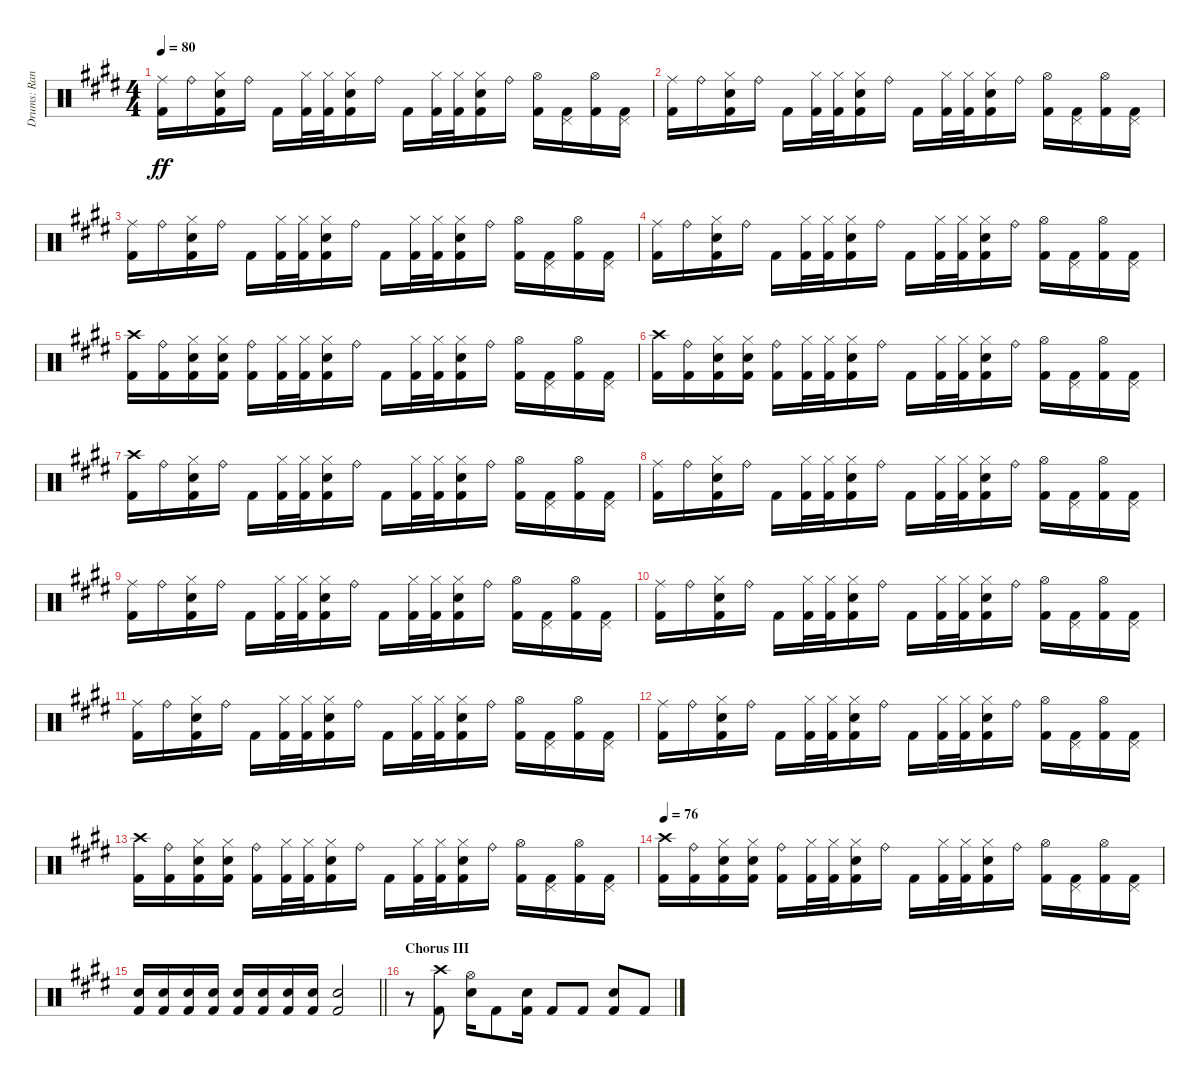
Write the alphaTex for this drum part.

\track ("Drums: Randy" "Drums: Ran") {instrument percussion}
\staff {score}
\articulation defaults
\ts (4 4)
\tempo 80
\clef neutral
\ks e
("Ride (middle)" "Kick (hit) 2").16{dy ff} "Ride (bell)".16 ("Hi-Hat (closed)" "Snare (hit) 2" "Kick (hit) 2").16 "Ride (bell)".16 "Kick (hit) 2".16 ("Hi-Hat (closed)" "Kick (hit) 2").32 ("Hi-Hat (closed)" "Kick (hit) 2").32 ("Hi-Hat (closed)" "Snare (hit) 2" "Kick (hit) 2").16 "Ride (bell)".16 "Kick (hit) 2".16 ("Hi-Hat (closed)" "Kick (hit) 2").32 ("Hi-Hat (closed)" "Kick (hit) 2").32 ("Hi-Hat (closed)" "Snare (hit) 2" "Kick (hit) 2").16 "Ride (bell)".16 ("Hi-Hat (open)" "Kick (hit) 2").16 ("Pedal Hi-Hat (hit)" "Kick (hit) 2").16 ("Hi-Hat (open)" "Kick (hit) 2").16 ("Pedal Hi-Hat (hit)" "Kick (hit) 2").16 |
("Ride (middle)" "Kick (hit) 2").16 "Ride (bell)".16 ("Hi-Hat (closed)" "Snare (hit) 2" "Kick (hit) 2").16 "Ride (bell)".16 "Kick (hit) 2".16 ("Hi-Hat (closed)" "Kick (hit) 2").32 ("Hi-Hat (closed)" "Kick (hit) 2").32 ("Hi-Hat (closed)" "Snare (hit) 2" "Kick (hit) 2").16 "Ride (bell)".16 "Kick (hit) 2".16 ("Hi-Hat (closed)" "Kick (hit) 2").32 ("Hi-Hat (closed)" "Kick (hit) 2").32 ("Hi-Hat (closed)" "Snare (hit) 2" "Kick (hit) 2").16 "Ride (bell)".16 ("Hi-Hat (open)" "Kick (hit) 2").16 ("Pedal Hi-Hat (hit)" "Kick (hit) 2").16 ("Hi-Hat (open)" "Kick (hit) 2").16 ("Pedal Hi-Hat (hit)" "Kick (hit) 2").16 |
("Ride (middle)" "Kick (hit) 2").16 "Ride (bell)".16 ("Hi-Hat (closed)" "Snare (hit) 2" "Kick (hit) 2").16 "Ride (bell)".16 "Kick (hit) 2".16 ("Hi-Hat (closed)" "Kick (hit) 2").32 ("Hi-Hat (closed)" "Kick (hit) 2").32 ("Hi-Hat (closed)" "Snare (hit) 2" "Kick (hit) 2").16 "Ride (bell)".16 "Kick (hit) 2".16 ("Hi-Hat (closed)" "Kick (hit) 2").32 ("Hi-Hat (closed)" "Kick (hit) 2").32 ("Hi-Hat (closed)" "Snare (hit) 2" "Kick (hit) 2").16 "Ride (bell)".16 ("Hi-Hat (open)" "Kick (hit) 2").16 ("Pedal Hi-Hat (hit)" "Kick (hit) 2").16 ("Hi-Hat (open)" "Kick (hit) 2").16 ("Pedal Hi-Hat (hit)" "Kick (hit) 2").16 |
("Ride (middle)" "Kick (hit) 2").16 "Ride (bell)".16 ("Hi-Hat (closed)" "Snare (hit) 2" "Kick (hit) 2").16 "Ride (bell)".16 "Kick (hit) 2".16 ("Hi-Hat (closed)" "Kick (hit) 2").32 ("Hi-Hat (closed)" "Kick (hit) 2").32 ("Hi-Hat (closed)" "Snare (hit) 2" "Kick (hit) 2").16 "Ride (bell)".16 "Kick (hit) 2".16 ("Hi-Hat (closed)" "Kick (hit) 2").32 ("Hi-Hat (closed)" "Kick (hit) 2").32 ("Hi-Hat (closed)" "Snare (hit) 2" "Kick (hit) 2").16 "Ride (bell)".16 ("Hi-Hat (open)" "Kick (hit) 2").16 ("Pedal Hi-Hat (hit)" "Kick (hit) 2").16 ("Hi-Hat (open)" "Kick (hit) 2").16 ("Pedal Hi-Hat (hit)" "Kick (hit) 2").16 |
("Crash high (hit)" "Kick (hit) 2").16 ("Ride (bell)" "Kick (hit) 2").16 ("Hi-Hat (closed)" "Snare (hit) 2" "Kick (hit) 2").16 ("Hi-Hat (closed)" "Snare (hit) 2" "Kick (hit) 2").16 ("Ride (bell)" "Kick (hit) 2").16 ("Hi-Hat (closed)" "Kick (hit) 2").32 ("Hi-Hat (closed)" "Kick (hit) 2").32 ("Hi-Hat (closed)" "Snare (hit) 2" "Kick (hit) 2").16 "Ride (bell)".16 "Kick (hit) 2".16 ("Hi-Hat (closed)" "Kick (hit) 2").32 ("Hi-Hat (closed)" "Kick (hit) 2").32 ("Hi-Hat (closed)" "Snare (hit) 2" "Kick (hit) 2").16 "Ride (bell)".16 ("Hi-Hat (open)" "Kick (hit) 2").16 ("Pedal Hi-Hat (hit)" "Kick (hit) 2").16 ("Hi-Hat (open)" "Kick (hit) 2").16 ("Pedal Hi-Hat (hit)" "Kick (hit) 2").16 |
("Crash high (hit)" "Kick (hit) 2").16 ("Ride (bell)" "Kick (hit) 2").16 ("Hi-Hat (closed)" "Snare (hit) 2" "Kick (hit) 2").16 ("Hi-Hat (closed)" "Snare (hit) 2" "Kick (hit) 2").16 ("Ride (bell)" "Kick (hit) 2").16 ("Hi-Hat (closed)" "Kick (hit) 2").32 ("Hi-Hat (closed)" "Kick (hit) 2").32 ("Hi-Hat (closed)" "Snare (hit) 2" "Kick (hit) 2").16 "Ride (bell)".16 "Kick (hit) 2".16 ("Hi-Hat (closed)" "Kick (hit) 2").32 ("Hi-Hat (closed)" "Kick (hit) 2").32 ("Hi-Hat (closed)" "Snare (hit) 2" "Kick (hit) 2").16 "Ride (bell)".16 ("Hi-Hat (open)" "Kick (hit) 2").16 ("Pedal Hi-Hat (hit)" "Kick (hit) 2").16 ("Hi-Hat (open)" "Kick (hit) 2").16 ("Pedal Hi-Hat (hit)" "Kick (hit) 2").16 |
("Crash high (hit)" "Kick (hit) 2").16 "Ride (bell)".16 ("Hi-Hat (closed)" "Snare (hit) 2" "Kick (hit) 2").16 "Ride (bell)".16 "Kick (hit) 2".16 ("Hi-Hat (closed)" "Kick (hit) 2").32 ("Hi-Hat (closed)" "Kick (hit) 2").32 ("Hi-Hat (closed)" "Snare (hit) 2" "Kick (hit) 2").16 "Ride (bell)".16 "Kick (hit) 2".16 ("Hi-Hat (closed)" "Kick (hit) 2").32 ("Hi-Hat (closed)" "Kick (hit) 2").32 ("Hi-Hat (closed)" "Snare (hit) 2" "Kick (hit) 2").16 "Ride (bell)".16 ("Hi-Hat (open)" "Kick (hit) 2").16 ("Pedal Hi-Hat (hit)" "Kick (hit) 2").16 ("Hi-Hat (open)" "Kick (hit) 2").16 ("Pedal Hi-Hat (hit)" "Kick (hit) 2").16 |
("Ride (middle)" "Kick (hit) 2").16 "Ride (bell)".16 ("Hi-Hat (closed)" "Snare (hit) 2" "Kick (hit) 2").16 "Ride (bell)".16 "Kick (hit) 2".16 ("Hi-Hat (closed)" "Kick (hit) 2").32 ("Hi-Hat (closed)" "Kick (hit) 2").32 ("Hi-Hat (closed)" "Snare (hit) 2" "Kick (hit) 2").16 "Ride (bell)".16 "Kick (hit) 2".16 ("Hi-Hat (closed)" "Kick (hit) 2").32 ("Hi-Hat (closed)" "Kick (hit) 2").32 ("Hi-Hat (closed)" "Snare (hit) 2" "Kick (hit) 2").16 "Ride (bell)".16 ("Hi-Hat (open)" "Kick (hit) 2").16 ("Pedal Hi-Hat (hit)" "Kick (hit) 2").16 ("Hi-Hat (open)" "Kick (hit) 2").16 ("Pedal Hi-Hat (hit)" "Kick (hit) 2").16 |
("Ride (middle)" "Kick (hit) 2").16 "Ride (bell)".16 ("Hi-Hat (closed)" "Snare (hit) 2" "Kick (hit) 2").16 "Ride (bell)".16 "Kick (hit) 2".16 ("Hi-Hat (closed)" "Kick (hit) 2").32 ("Hi-Hat (closed)" "Kick (hit) 2").32 ("Hi-Hat (closed)" "Snare (hit) 2" "Kick (hit) 2").16 "Ride (bell)".16 "Kick (hit) 2".16 ("Hi-Hat (closed)" "Kick (hit) 2").32 ("Hi-Hat (closed)" "Kick (hit) 2").32 ("Hi-Hat (closed)" "Snare (hit) 2" "Kick (hit) 2").16 "Ride (bell)".16 ("Hi-Hat (open)" "Kick (hit) 2").16 ("Pedal Hi-Hat (hit)" "Kick (hit) 2").16 ("Hi-Hat (open)" "Kick (hit) 2").16 ("Pedal Hi-Hat (hit)" "Kick (hit) 2").16 |
("Ride (middle)" "Kick (hit) 2").16 "Ride (bell)".16 ("Hi-Hat (closed)" "Snare (hit) 2" "Kick (hit) 2").16 "Ride (bell)".16 "Kick (hit) 2".16 ("Hi-Hat (closed)" "Kick (hit) 2").32 ("Hi-Hat (closed)" "Kick (hit) 2").32 ("Hi-Hat (closed)" "Snare (hit) 2" "Kick (hit) 2").16 "Ride (bell)".16 "Kick (hit) 2".16 ("Hi-Hat (closed)" "Kick (hit) 2").32 ("Hi-Hat (closed)" "Kick (hit) 2").32 ("Hi-Hat (closed)" "Snare (hit) 2" "Kick (hit) 2").16 "Ride (bell)".16 ("Hi-Hat (open)" "Kick (hit) 2").16 ("Pedal Hi-Hat (hit)" "Kick (hit) 2").16 ("Hi-Hat (open)" "Kick (hit) 2").16 ("Pedal Hi-Hat (hit)" "Kick (hit) 2").16 |
("Ride (middle)" "Kick (hit) 2").16 "Ride (bell)".16 ("Hi-Hat (closed)" "Snare (hit) 2" "Kick (hit) 2").16 "Ride (bell)".16 "Kick (hit) 2".16 ("Hi-Hat (closed)" "Kick (hit) 2").32 ("Hi-Hat (closed)" "Kick (hit) 2").32 ("Hi-Hat (closed)" "Snare (hit) 2" "Kick (hit) 2").16 "Ride (bell)".16 "Kick (hit) 2".16 ("Hi-Hat (closed)" "Kick (hit) 2").32 ("Hi-Hat (closed)" "Kick (hit) 2").32 ("Hi-Hat (closed)" "Snare (hit) 2" "Kick (hit) 2").16 "Ride (bell)".16 ("Hi-Hat (open)" "Kick (hit) 2").16 ("Pedal Hi-Hat (hit)" "Kick (hit) 2").16 ("Hi-Hat (open)" "Kick (hit) 2").16 ("Pedal Hi-Hat (hit)" "Kick (hit) 2").16 |
("Ride (middle)" "Kick (hit) 2").16 "Ride (bell)".16 ("Hi-Hat (closed)" "Snare (hit) 2" "Kick (hit) 2").16 "Ride (bell)".16 "Kick (hit) 2".16 ("Hi-Hat (closed)" "Kick (hit) 2").32 ("Hi-Hat (closed)" "Kick (hit) 2").32 ("Hi-Hat (closed)" "Snare (hit) 2" "Kick (hit) 2").16 "Ride (bell)".16 "Kick (hit) 2".16 ("Hi-Hat (closed)" "Kick (hit) 2").32 ("Hi-Hat (closed)" "Kick (hit) 2").32 ("Hi-Hat (closed)" "Snare (hit) 2" "Kick (hit) 2").16 "Ride (bell)".16 ("Hi-Hat (open)" "Kick (hit) 2").16 ("Pedal Hi-Hat (hit)" "Kick (hit) 2").16 ("Hi-Hat (open)" "Kick (hit) 2").16 ("Pedal Hi-Hat (hit)" "Kick (hit) 2").16 |
("Crash high (hit)" "Kick (hit) 2").16 ("Ride (bell)" "Kick (hit) 2").16 ("Hi-Hat (closed)" "Snare (hit) 2" "Kick (hit) 2").16 ("Hi-Hat (closed)" "Snare (hit) 2" "Kick (hit) 2").16 ("Ride (bell)" "Kick (hit) 2").16 ("Hi-Hat (closed)" "Kick (hit) 2").32 ("Hi-Hat (closed)" "Kick (hit) 2").32 ("Hi-Hat (closed)" "Snare (hit) 2" "Kick (hit) 2").16 "Ride (bell)".16 "Kick (hit) 2".16 ("Hi-Hat (closed)" "Kick (hit) 2").32 ("Hi-Hat (closed)" "Kick (hit) 2").32 ("Hi-Hat (closed)" "Snare (hit) 2" "Kick (hit) 2").16 "Ride (bell)".16 ("Hi-Hat (open)" "Kick (hit) 2").16 ("Pedal Hi-Hat (hit)" "Kick (hit) 2").16 ("Hi-Hat (open)" "Kick (hit) 2").16 ("Pedal Hi-Hat (hit)" "Kick (hit) 2").16 |
\tempo 76
("Crash high (hit)" "Kick (hit) 2").16 ("Ride (bell)" "Kick (hit) 2").16 ("Hi-Hat (closed)" "Snare (hit) 2" "Kick (hit) 2").16 ("Hi-Hat (closed)" "Snare (hit) 2" "Kick (hit) 2").16 ("Ride (bell)" "Kick (hit) 2").16 ("Hi-Hat (closed)" "Kick (hit) 2").32 ("Hi-Hat (closed)" "Kick (hit) 2").32 ("Hi-Hat (closed)" "Snare (hit) 2" "Kick (hit) 2").16 "Ride (bell)".16 "Kick (hit) 2".16 ("Hi-Hat (closed)" "Kick (hit) 2").32 ("Hi-Hat (closed)" "Kick (hit) 2").32 ("Hi-Hat (closed)" "Snare (hit) 2" "Kick (hit) 2").16 "Ride (bell)".16 ("Hi-Hat (open)" "Kick (hit) 2").16 ("Pedal Hi-Hat (hit)" "Kick (hit) 2").16 ("Hi-Hat (open)" "Kick (hit) 2").16 ("Pedal Hi-Hat (hit)" "Kick (hit) 2").16 |
\barLineRight lightlight
("Snare (hit) 2" "Kick (hit) 2").16 ("Snare (hit) 2" "Kick (hit) 2").16 ("Snare (hit) 2" "Kick (hit) 2").16 ("Snare (hit) 2" "Kick (hit) 2").16 ("Snare (hit) 2" "Kick (hit) 2").16 ("Snare (hit) 2" "Kick (hit) 2").16 ("Snare (hit) 2" "Kick (hit) 2").16 ("Snare (hit) 2" "Kick (hit) 2").16 ("Snare (hit) 2" "Kick (hit) 2").2 |
\section ("" "Chorus III")
r.8 ("Crash high (hit)" "Kick (hit) 2").8 ("Hi-Hat (open)" "Snare (hit) 2").16 "Kick (hit) 2".8 ("Snare (hit) 2" "Kick (hit) 2").16 "Kick (hit) 2".8 "Kick (hit) 2".8 ("Snare (hit) 2" "Kick (hit) 2").8 "Kick (hit) 2".8
